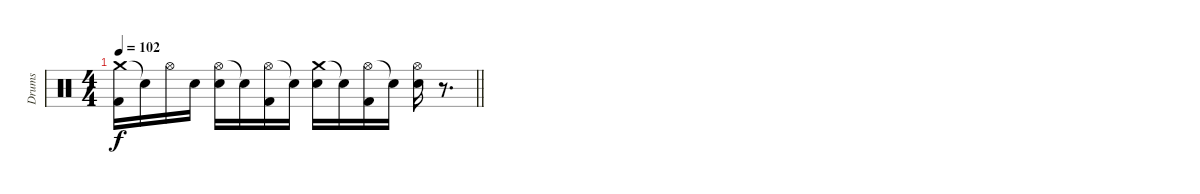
\track ("Drums" "Drums") {instrument percussion}
\staff {score}
\articulation defaults
\ts (4 4)
\tempo 102
\clef neutral
\barLineRight lightlight
\ks c
("Crash medium (hit)" "Kick (hit) 2").16{dy f} "Snare (hit)"{t}.16 "Hi-Hat (open)".16 "Electric Snare (hit)".16 ("Hi-Hat (open)" "Electric Snare (hit)").16 "Snare (hit)"{t}.16 ("Hi-Hat (open)" "Kick (hit) 2").16 "Snare (hit)"{t}.16 ("Crash medium (hit)" "Electric Snare (hit)").16 "Snare (hit)"{t}.16 ("Hi-Hat (open)" "Kick (hit) 2").16 "Snare (hit)"{t}.16 ("Hi-Hat (open)" "Electric Snare (hit)").16 r.8{d}
